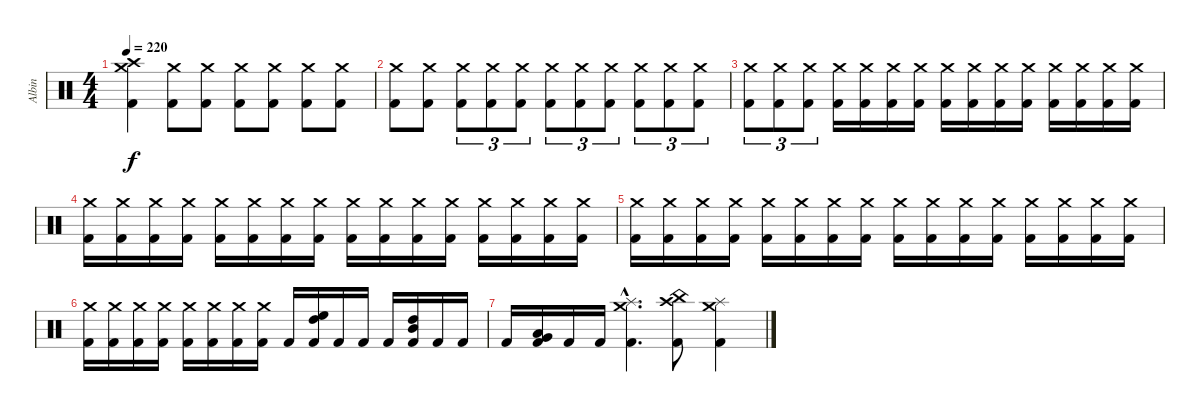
\track ("Albin" "Albin") {instrument percussion}
\staff {score}
\articulation defaults
\ts (4 4)
\tempo 220
\clef neutral
\ks c
("Kick (hit) 2" "Crash high (hit)" "Crash medium (hit)").4{dy f} ("Kick (hit) 2" "Crash medium (hit)").8 ("Kick (hit) 2" "Crash medium (hit)").8 ("Kick (hit) 2" "Crash medium (hit)").8 ("Kick (hit) 2" "Crash medium (hit)").8 ("Kick (hit) 2" "Crash medium (hit)").8 ("Kick (hit) 2" "Crash medium (hit)").8 |
("Kick (hit) 2" "Crash medium (hit)").8 ("Kick (hit) 2" "Crash medium (hit)").8 ("Kick (hit) 2" "Crash medium (hit)").8{tu (3 2)} ("Kick (hit) 2" "Crash medium (hit)").8{tu (3 2)} ("Kick (hit) 2" "Crash medium (hit)").8{tu (3 2)} ("Kick (hit) 2" "Crash medium (hit)").8{tu (3 2)} ("Kick (hit) 2" "Crash medium (hit)").8{tu (3 2)} ("Kick (hit) 2" "Crash medium (hit)").8{tu (3 2)} ("Kick (hit) 2" "Crash medium (hit)").8{tu (3 2)} ("Kick (hit) 2" "Crash medium (hit)").8{tu (3 2)} ("Kick (hit) 2" "Crash medium (hit)").8{tu (3 2)} |
("Kick (hit) 2" "Crash medium (hit)").8{tu (3 2)} ("Kick (hit) 2" "Crash medium (hit)").8{tu (3 2)} ("Kick (hit) 2" "Crash medium (hit)").8{tu (3 2)} ("Kick (hit) 2" "Crash medium (hit)").16 ("Kick (hit) 2" "Crash medium (hit)").16 ("Kick (hit) 2" "Crash medium (hit)").16 ("Kick (hit) 2" "Crash medium (hit)").16 ("Kick (hit) 2" "Crash medium (hit)").16 ("Kick (hit) 2" "Crash medium (hit)").16 ("Kick (hit) 2" "Crash medium (hit)").16 ("Kick (hit) 2" "Crash medium (hit)").16 ("Kick (hit) 2" "Crash medium (hit)").16 ("Kick (hit) 2" "Crash medium (hit)").16 ("Kick (hit) 2" "Crash medium (hit)").16 ("Kick (hit) 2" "Crash medium (hit)").16 |
("Kick (hit) 2" "Crash medium (hit)").16 ("Kick (hit) 2" "Crash medium (hit)").16 ("Kick (hit) 2" "Crash medium (hit)").16 ("Kick (hit) 2" "Crash medium (hit)").16 ("Kick (hit) 2" "Crash medium (hit)").16 ("Kick (hit) 2" "Crash medium (hit)").16 ("Kick (hit) 2" "Crash medium (hit)").16 ("Kick (hit) 2" "Crash medium (hit)").16 ("Kick (hit) 2" "Crash medium (hit)").16 ("Kick (hit) 2" "Crash medium (hit)").16 ("Kick (hit) 2" "Crash medium (hit)").16 ("Kick (hit) 2" "Crash medium (hit)").16 ("Kick (hit) 2" "Crash medium (hit)").16 ("Kick (hit) 2" "Crash medium (hit)").16 ("Kick (hit) 2" "Crash medium (hit)").16 ("Kick (hit) 2" "Crash medium (hit)").16 |
("Kick (hit) 2" "Crash medium (hit)").16 ("Kick (hit) 2" "Crash medium (hit)").16 ("Kick (hit) 2" "Crash medium (hit)").16 ("Kick (hit) 2" "Crash medium (hit)").16 ("Kick (hit) 2" "Crash medium (hit)").16 ("Kick (hit) 2" "Crash medium (hit)").16 ("Kick (hit) 2" "Crash medium (hit)").16 ("Kick (hit) 2" "Crash medium (hit)").16 ("Kick (hit) 2" "Crash medium (hit)").16 ("Kick (hit) 2" "Crash medium (hit)").16 ("Kick (hit) 2" "Crash medium (hit)").16 ("Kick (hit) 2" "Crash medium (hit)").16 ("Kick (hit) 2" "Crash medium (hit)").16 ("Kick (hit) 2" "Crash medium (hit)").16 ("Kick (hit) 2" "Crash medium (hit)").16 ("Kick (hit) 2" "Crash medium (hit)").16 |
("Kick (hit) 2" "Crash medium (hit)").16 ("Kick (hit) 2" "Crash medium (hit)").16 ("Kick (hit) 2" "Crash medium (hit)").16 ("Kick (hit) 2" "Crash medium (hit)").16 ("Kick (hit) 2" "Crash medium (hit)").16 ("Kick (hit) 2" "Crash medium (hit)").16 ("Kick (hit) 2" "Crash medium (hit)").16 ("Kick (hit) 2" "Crash medium (hit)").16 "Kick (hit) 2".16 ("Kick (hit) 2" "High Floor Tom (hit)" "High Tom (hit)").16 "Kick (hit) 2".16 "Kick (hit) 2".16 "Kick (hit) 2".16 ("Kick (hit) 2" "High Tom (hit)" "Mid Tom (hit)").16 "Kick (hit) 2".16 "Kick (hit) 2".16 |
"Kick (hit) 2".16 ("Kick (hit) 2" "Low Tom (hit)" "Very Low Tom (hit)").16 "Kick (hit) 2".16 "Kick (hit) 2".16 ("Kick (hit) 2"{hac} "Splash (hit)"{hac} "Crash medium (hit)"{hac}).4{d} ("Kick (hit) 2" "Crash high (hit)" "China (hit)").8 ("Kick (hit) 2" "Splash (hit)" "Crash medium (hit)").4
